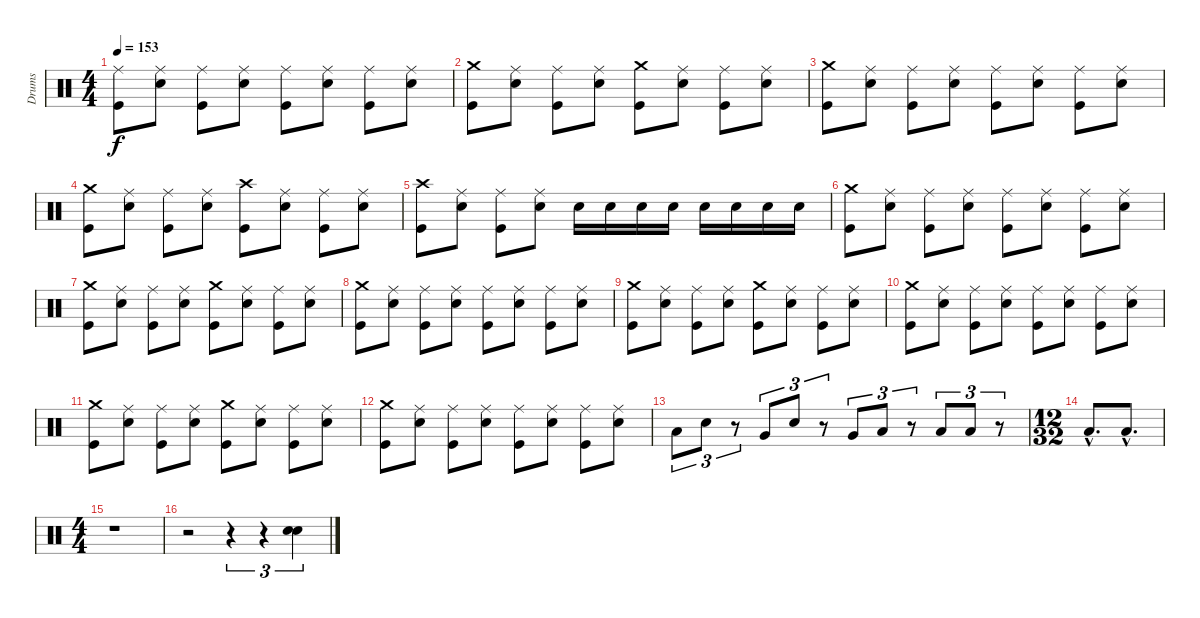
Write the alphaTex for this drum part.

\track ("Drums" "Drums") {instrument percussion}
\staff {score}
\articulation defaults
\ts (4 4)
\tempo 153
\clef neutral
\ks c
("Ride (middle)" "Kick (hit)").8{dy f} ("Ride (middle)" "Snare (hit) 2").8 ("Ride (middle)" "Kick (hit)").8 ("Ride (middle)" "Snare (hit) 2").8 ("Ride (middle)" "Kick (hit)").8 ("Ride (middle)" "Snare (hit) 2").8 ("Ride (middle)" "Kick (hit)").8 ("Ride (middle)" "Snare (hit) 2").8 |
("Crash medium (hit)" "Kick (hit)").8 ("Ride (middle)" "Snare (hit) 2").8 ("Ride (middle)" "Kick (hit)").8 ("Ride (middle)" "Snare (hit) 2").8 ("Crash medium (hit)" "Kick (hit)").8 ("Ride (middle)" "Snare (hit) 2").8 ("Ride (middle)" "Kick (hit)").8 ("Ride (middle)" "Snare (hit) 2").8 |
("Crash medium (hit)" "Kick (hit)").8 ("Ride (middle)" "Snare (hit) 2").8 ("Ride (middle)" "Kick (hit)").8 ("Ride (middle)" "Snare (hit) 2").8 ("Ride (middle)" "Kick (hit)").8 ("Ride (middle)" "Snare (hit) 2").8 ("Ride (middle)" "Kick (hit)").8 ("Ride (middle)" "Snare (hit) 2").8 |
("Crash medium (hit)" "Kick (hit)").8 ("Ride (middle)" "Snare (hit) 2").8 ("Ride (middle)" "Kick (hit)").8 ("Ride (middle)" "Snare (hit) 2").8 ("Crash high (hit)" "Kick (hit)").8 ("Ride (middle)" "Snare (hit) 2").8 ("Ride (middle)" "Kick (hit)").8 ("Ride (middle)" "Snare (hit) 2").8 |
("Crash high (hit)" "Kick (hit)").8 ("Ride (middle)" "Snare (hit) 2").8 ("Ride (middle)" "Kick (hit)").8 ("Ride (middle)" "Snare (hit) 2").8 "Snare (hit) 2".16 "Snare (hit) 2".16 "Snare (hit) 2".16 "Snare (hit) 2".16 "Snare (hit) 2".16 "Snare (hit) 2".16 "Snare (hit) 2".16 "Snare (hit) 2".16 |
("Crash medium (hit)" "Kick (hit)").8 ("Ride (middle)" "Snare (hit) 2").8 ("Ride (middle)" "Kick (hit)").8 ("Ride (middle)" "Snare (hit) 2").8 ("Ride (middle)" "Kick (hit)").8 ("Ride (middle)" "Snare (hit) 2").8 ("Ride (middle)" "Kick (hit)").8 ("Ride (middle)" "Snare (hit) 2").8 |
("Crash medium (hit)" "Kick (hit)").8 ("Ride (middle)" "Snare (hit) 2").8 ("Ride (middle)" "Kick (hit)").8 ("Ride (middle)" "Snare (hit) 2").8 ("Crash medium (hit)" "Kick (hit)").8 ("Ride (middle)" "Snare (hit) 2").8 ("Ride (middle)" "Kick (hit)").8 ("Ride (middle)" "Snare (hit) 2").8 |
("Crash medium (hit)" "Kick (hit)").8 ("Ride (middle)" "Snare (hit) 2").8 ("Ride (middle)" "Kick (hit)").8 ("Ride (middle)" "Snare (hit) 2").8 ("Ride (middle)" "Kick (hit)").8 ("Ride (middle)" "Snare (hit) 2").8 ("Ride (middle)" "Kick (hit)").8 ("Ride (middle)" "Snare (hit) 2").8 |
("Crash medium (hit)" "Kick (hit)").8 ("Ride (middle)" "Snare (hit) 2").8 ("Ride (middle)" "Kick (hit)").8 ("Ride (middle)" "Snare (hit) 2").8 ("Crash medium (hit)" "Kick (hit)").8 ("Ride (middle)" "Snare (hit) 2").8 ("Ride (middle)" "Kick (hit)").8 ("Ride (middle)" "Snare (hit) 2").8 |
("Crash medium (hit)" "Kick (hit)").8 ("Ride (middle)" "Snare (hit) 2").8 ("Ride (middle)" "Kick (hit)").8 ("Ride (middle)" "Snare (hit) 2").8 ("Ride (middle)" "Kick (hit)").8 ("Ride (middle)" "Snare (hit) 2").8 ("Ride (middle)" "Kick (hit)").8 ("Ride (middle)" "Snare (hit) 2").8 |
("Crash medium (hit)" "Kick (hit)").8 ("Ride (middle)" "Snare (hit) 2").8 ("Ride (middle)" "Kick (hit)").8 ("Ride (middle)" "Snare (hit) 2").8 ("Crash medium (hit)" "Kick (hit)").8 ("Ride (middle)" "Snare (hit) 2").8 ("Ride (middle)" "Kick (hit)").8 ("Ride (middle)" "Snare (hit) 2").8 |
("Crash medium (hit)" "Kick (hit)").8 ("Ride (middle)" "Snare (hit) 2").8 ("Ride (middle)" "Kick (hit)").8 ("Ride (middle)" "Snare (hit) 2").8 ("Ride (middle)" "Kick (hit)").8 ("Ride (middle)" "Snare (hit) 2").8 ("Ride (middle)" "Kick (hit)").8 ("Ride (middle)" "Snare (hit) 2").8 |
"Low Tom (hit)".8{tu (3 2)} "Snare (hit) 2".8{tu (3 2)} r.8{tu (3 2)} "Very Low Tom (hit)".8{tu (3 2)} "Snare (hit) 2".8{tu (3 2)} r.8{tu (3 2)} "Very Low Tom (hit)".8{tu (3 2)} "Low Floor Tom (hit)".8{tu (3 2)} r.8{tu (3 2)} "Low Floor Tom (hit)".8{tu (3 2)} "Low Floor Tom (hit)".8{tu (3 2)} r.8{tu (3 2)} |
\ts (12 32)
"Low Floor Tom (hit)"{hac}.8{d} "Low Floor Tom (hit)"{hac}.8{d} |
\ts (4 4)
r.1 |
r.2 r.4{tu (3 2)} r.4{tu (3 2)} ("Snare (hit) 2" "Snare (hit) 2").4{tu (3 2) bu 480}
